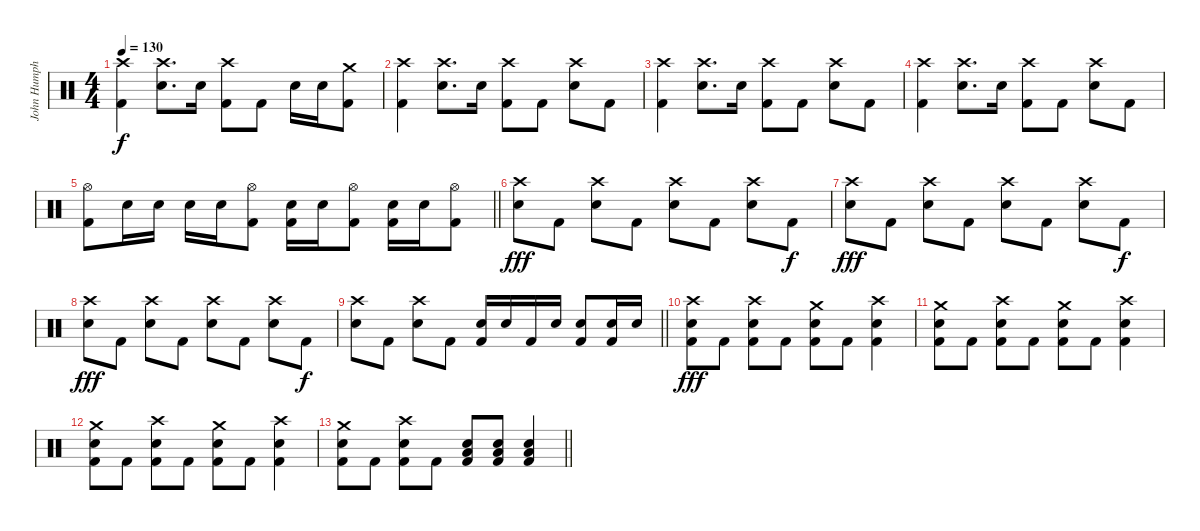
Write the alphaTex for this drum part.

\track ("John Humphrey" "John Humph") {instrument percussion}
\staff {score}
\articulation defaults
\ts (4 4)
\tempo 130
\clef neutral
\ks c
("Crash high (hit)" "Kick (hit) 2").4{dy f} ("Crash high (hit)" "Electric Snare (hit)").8{d} "Electric Snare (hit)".16 ("Crash high (hit)" "Kick (hit) 2").8 "Kick (hit) 2".8 "Electric Snare (hit)".16 "Electric Snare (hit)".16 ("Crash medium (hit)" "Kick (hit) 2").8 |
("Crash high (hit)" "Kick (hit) 2").4 ("Crash high (hit)" "Electric Snare (hit)").8{d} "Electric Snare (hit)".16 ("Crash high (hit)" "Kick (hit) 2").8 "Kick (hit) 2".8 ("Crash high (hit)" "Electric Snare (hit)").8 "Kick (hit) 2".8 |
("Crash high (hit)" "Kick (hit) 2").4 ("Crash high (hit)" "Electric Snare (hit)").8{d} "Electric Snare (hit)".16 ("Crash high (hit)" "Kick (hit) 2").8 "Kick (hit) 2".8 ("Crash high (hit)" "Electric Snare (hit)").8 "Kick (hit) 2".8 |
("Crash high (hit)" "Kick (hit) 2").4 ("Crash high (hit)" "Electric Snare (hit)").8{d} "Electric Snare (hit)".16 ("Crash high (hit)" "Kick (hit) 2").8 "Kick (hit) 2".8 ("Crash high (hit)" "Electric Snare (hit)").8 "Kick (hit) 2".8 |
\barLineRight lightlight
("Hi-Hat (open)" "Kick (hit) 2").8 "Electric Snare (hit)".16 "Electric Snare (hit)".16 "Electric Snare (hit)".16 "Electric Snare (hit)".16 ("Hi-Hat (open)" "Kick (hit) 2").8 ("Electric Snare (hit)" "Kick (hit) 2").16 "Electric Snare (hit)".16 ("Hi-Hat (open)" "Kick (hit) 2").8 ("Electric Snare (hit)" "Kick (hit) 2").16 "Electric Snare (hit)".16 ("Hi-Hat (open)" "Kick (hit) 2").8 |
("Crash high (hit)" "Electric Snare (hit)").8{dy fff} "Kick (hit) 2".8 ("Crash high (hit)" "Electric Snare (hit)").8 "Kick (hit) 2".8 ("Crash high (hit)" "Electric Snare (hit)").8 "Kick (hit) 2".8 ("Crash high (hit)" "Electric Snare (hit)").8 "Kick (hit) 2".8{dy f} |
("Crash high (hit)" "Electric Snare (hit)").8{dy fff} "Kick (hit) 2".8 ("Crash high (hit)" "Electric Snare (hit)").8 "Kick (hit) 2".8 ("Crash high (hit)" "Electric Snare (hit)").8 "Kick (hit) 2".8 ("Crash high (hit)" "Electric Snare (hit)").8 "Kick (hit) 2".8{dy f} |
("Crash high (hit)" "Electric Snare (hit)").8{dy fff} "Kick (hit) 2".8 ("Crash high (hit)" "Electric Snare (hit)").8 "Kick (hit) 2".8 ("Crash high (hit)" "Electric Snare (hit)").8 "Kick (hit) 2".8 ("Crash high (hit)" "Electric Snare (hit)").8 "Kick (hit) 2".8{dy f} |
\barLineRight lightlight
("Crash high (hit)" "Electric Snare (hit)").8 "Kick (hit) 2".8 ("Crash high (hit)" "Electric Snare (hit)").8 "Kick (hit) 2".8 ("Electric Snare (hit)" "Kick (hit) 2").16 "Electric Snare (hit)".16 "Kick (hit) 2".16 "Electric Snare (hit)".16 ("Electric Snare (hit)" "Kick (hit) 2").8 ("Electric Snare (hit)" "Kick (hit) 2").16 "Electric Snare (hit)".16 |
("Crash high (hit)" "Electric Snare (hit)" "Kick (hit) 2").8{dy fff} "Kick (hit) 2".8 ("Crash high (hit)" "Electric Snare (hit)" "Kick (hit) 2").8 "Kick (hit) 2".8 ("Crash medium (hit)" "Electric Snare (hit)" "Kick (hit) 2").8 "Kick (hit) 2".8 ("Crash high (hit)" "Electric Snare (hit)" "Kick (hit) 2").4 |
("Crash medium (hit)" "Electric Snare (hit)" "Kick (hit) 2").8 "Kick (hit) 2".8 ("Crash high (hit)" "Electric Snare (hit)" "Kick (hit) 2").8 "Kick (hit) 2".8 ("Crash medium (hit)" "Electric Snare (hit)" "Kick (hit) 2").8 "Kick (hit) 2".8 ("Crash high (hit)" "Electric Snare (hit)" "Kick (hit) 2").4 |
("Crash medium (hit)" "Electric Snare (hit)" "Kick (hit) 2").8 "Kick (hit) 2".8 ("Crash high (hit)" "Electric Snare (hit)" "Kick (hit) 2").8 "Kick (hit) 2".8 ("Crash medium (hit)" "Electric Snare (hit)" "Kick (hit) 2").8 "Kick (hit) 2".8 ("Crash high (hit)" "Electric Snare (hit)" "Kick (hit) 2").4 |
\barLineRight lightlight
("Crash medium (hit)" "Electric Snare (hit)" "Kick (hit) 2").8 "Kick (hit) 2".8 ("Crash high (hit)" "Electric Snare (hit)" "Kick (hit) 2").8 "Kick (hit) 2".8 ("Low Tom (hit)" "Electric Snare (hit)" "Kick (hit) 2").8 ("Low Tom (hit)" "Electric Snare (hit)" "Kick (hit) 2").8 ("Low Tom (hit)" "Electric Snare (hit)" "Kick (hit) 2").4
